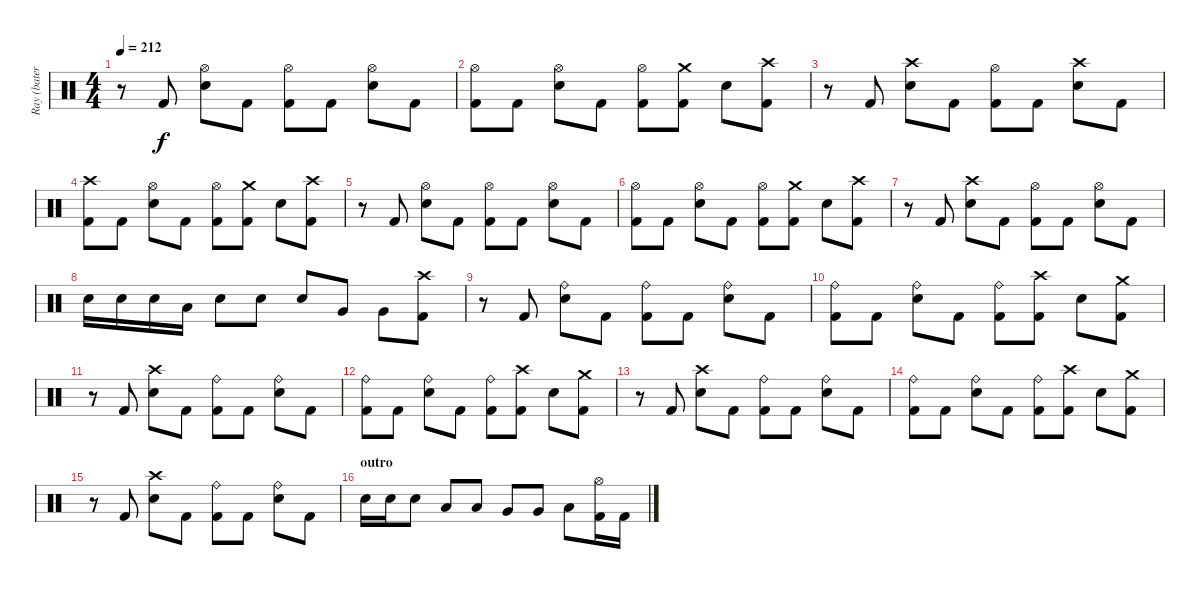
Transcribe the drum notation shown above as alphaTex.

\track ("Ray (batería)" "Ray (bater") {instrument percussion}
\staff {score}
\articulation defaults
\ts (4 4)
\tempo 212
\clef neutral
\ks c
r.8{dy f} "Kick (hit) 2".8 ("Hi-Hat (open)" "Snare (hit) 2").8 "Kick (hit) 2".8 ("Hi-Hat (open)" "Kick (hit) 2").8 "Kick (hit) 2".8 ("Hi-Hat (open)" "Snare (hit) 2").8 "Kick (hit) 2".8 |
("Hi-Hat (open)" "Kick (hit) 2").8 "Kick (hit) 2".8 ("Hi-Hat (open)" "Snare (hit) 2").8 "Kick (hit) 2".8 ("Hi-Hat (open)" "Kick (hit) 2").8 ("Crash medium (hit)" "Kick (hit) 2").8 "Snare (hit) 2".8 ("Crash high (hit)" "Kick (hit) 2").8 |
r.8 "Kick (hit) 2".8 ("Crash high (hit)" "Snare (hit) 2").8 "Kick (hit) 2".8 ("Hi-Hat (open)" "Kick (hit) 2").8 "Kick (hit) 2".8 ("Crash high (hit)" "Snare (hit) 2").8 "Kick (hit) 2".8 |
("Crash high (hit)" "Kick (hit) 2").8 "Kick (hit) 2".8 ("Hi-Hat (open)" "Snare (hit) 2").8 "Kick (hit) 2".8 ("Hi-Hat (open)" "Kick (hit) 2").8 ("Crash medium (hit)" "Kick (hit) 2").8 "Snare (hit) 2".8 ("Crash high (hit)" "Kick (hit) 2").8 |
r.8 "Kick (hit) 2".8 ("Hi-Hat (open)" "Snare (hit) 2").8 "Kick (hit) 2".8 ("Hi-Hat (open)" "Kick (hit) 2").8 "Kick (hit) 2".8 ("Hi-Hat (open)" "Snare (hit) 2").8 "Kick (hit) 2".8 |
("Hi-Hat (open)" "Kick (hit) 2").8 "Kick (hit) 2".8 ("Hi-Hat (open)" "Snare (hit) 2").8 "Kick (hit) 2".8 ("Hi-Hat (open)" "Kick (hit) 2").8 ("Crash medium (hit)" "Kick (hit) 2").8 "Snare (hit) 2".8 ("Crash high (hit)" "Kick (hit) 2").8 |
r.8 "Kick (hit) 2".8 ("Crash high (hit)" "Snare (hit) 2").8 "Kick (hit) 2".8 ("Hi-Hat (open)" "Kick (hit) 2").8 "Kick (hit) 2".8 ("Hi-Hat (open)" "Snare (hit) 2").8 "Kick (hit) 2".8 |
"Snare (hit) 2".16 "Snare (hit) 2".16 "Snare (hit) 2".16 "Low Tom (hit)".16 "Snare (hit) 2".8 "Snare (hit) 2".8 "Snare (hit) 2".8 "Very Low Tom (hit)".8 "Very Low Tom (hit)".8 ("Crash high (hit)" "Kick (hit) 2").8 |
r.8 "Kick (hit) 2".8 ("Ride (bell)" "Snare (hit) 2").8 "Kick (hit) 2".8 ("Ride (bell)" "Kick (hit) 2").8 "Kick (hit) 2".8 ("Ride (bell)" "Snare (hit) 2").8 "Kick (hit) 2".8 |
("Ride (bell)" "Kick (hit) 2").8 "Kick (hit) 2".8 ("Ride (bell)" "Snare (hit) 2").8 "Kick (hit) 2".8 ("Ride (bell)" "Kick (hit) 2").8 ("Crash high (hit)" "Kick (hit) 2").8 "Snare (hit) 2".8 ("Crash medium (hit)" "Kick (hit) 2").8 |
r.8 "Kick (hit) 2".8 ("Crash high (hit)" "Snare (hit) 2").8 "Kick (hit) 2".8 ("Ride (bell)" "Kick (hit) 2").8 "Kick (hit) 2".8 ("Ride (bell)" "Snare (hit) 2").8 "Kick (hit) 2".8 |
("Ride (bell)" "Kick (hit) 2").8 "Kick (hit) 2".8 ("Ride (bell)" "Snare (hit) 2").8 "Kick (hit) 2".8 ("Ride (bell)" "Kick (hit) 2").8 ("Crash high (hit)" "Kick (hit) 2").8 "Snare (hit) 2".8 ("Crash medium (hit)" "Kick (hit) 2").8 |
r.8 "Kick (hit) 2".8 ("Crash high (hit)" "Snare (hit) 2").8 "Kick (hit) 2".8 ("Ride (bell)" "Kick (hit) 2").8 "Kick (hit) 2".8 ("Ride (bell)" "Snare (hit) 2").8 "Kick (hit) 2".8 |
("Ride (bell)" "Kick (hit) 2").8 "Kick (hit) 2".8 ("Ride (bell)" "Snare (hit) 2").8 "Kick (hit) 2".8 ("Ride (bell)" "Kick (hit) 2").8 ("Crash high (hit)" "Kick (hit) 2").8 "Snare (hit) 2".8 ("Crash medium (hit)" "Kick (hit) 2").8 |
r.8 "Kick (hit) 2".8 ("Crash high (hit)" "Snare (hit) 2").8 "Kick (hit) 2".8 ("Ride (bell)" "Kick (hit) 2").8 "Kick (hit) 2".8 ("Ride (bell)" "Snare (hit) 2").8 "Kick (hit) 2".8 |
\section ("" "outro")
"Snare (hit) 2".16 "Snare (hit) 2".16 "Snare (hit) 2".8 "Low Tom (hit)".8 "Low Tom (hit)".8 "Very Low Tom (hit)".8 "Very Low Tom (hit)".8 "Low Floor Tom (hit)".8 ("Hi-Hat (open)" "Kick (hit) 2").16 "Kick (hit) 2".16
